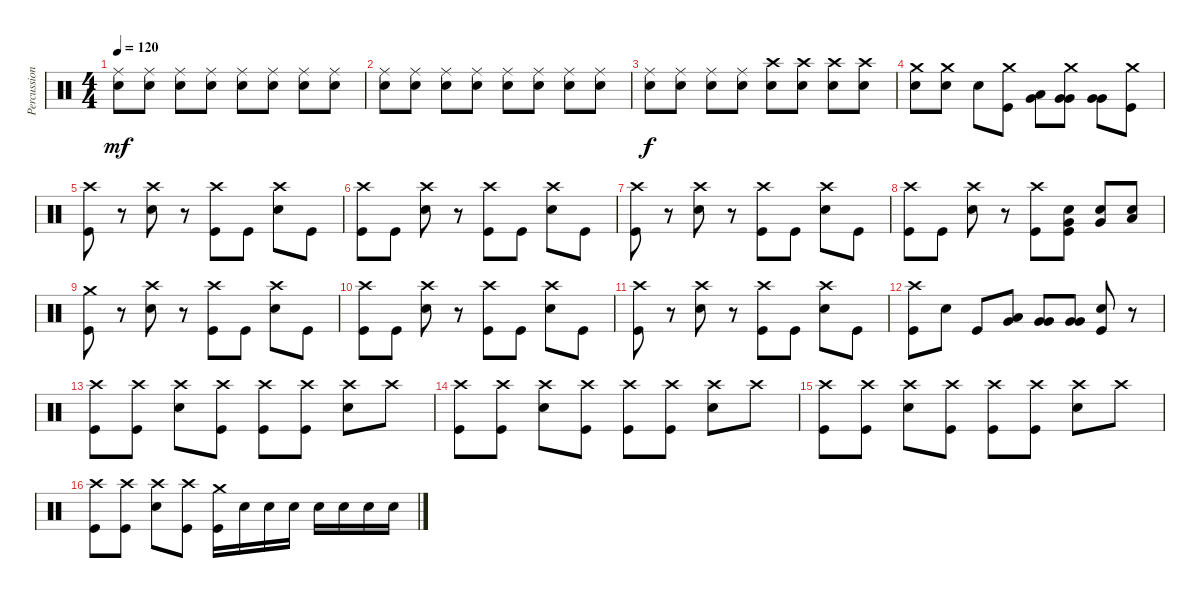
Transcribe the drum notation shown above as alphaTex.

\track ("Percussion" "Percussion") {instrument percussion}
\staff {score}
\articulation defaults
\ts (4 4)
\tempo 120
\clef neutral
\ks c
("Ride (middle)" "Snare (hit) 2").8{dy mf} ("Ride (middle)" "Snare (hit) 2").8 ("Ride (middle)" "Snare (hit) 2").8 ("Ride (middle)" "Snare (hit) 2").8 ("Ride (middle)" "Snare (hit) 2").8 ("Ride (middle)" "Snare (hit) 2").8 ("Ride (middle)" "Snare (hit) 2").8 ("Ride (middle)" "Snare (hit) 2").8 |
("Ride (middle)" "Snare (hit) 2").8 ("Ride (middle)" "Snare (hit) 2").8 ("Ride (middle)" "Snare (hit) 2").8 ("Ride (middle)" "Snare (hit) 2").8 ("Ride (middle)" "Snare (hit) 2").8 ("Ride (middle)" "Snare (hit) 2").8 ("Ride (middle)" "Snare (hit) 2").8 ("Ride (middle)" "Snare (hit) 2").8 |
("Ride (middle)" "Snare (hit) 2").8{dy f} ("Ride (middle)" "Snare (hit) 2").8 ("Ride (middle)" "Snare (hit) 2").8 ("Ride (middle)" "Snare (hit) 2").8 ("Crash high (hit)" "Snare (hit) 2").8 ("Crash high (hit)" "Snare (hit) 2").8 ("Crash high (hit)" "Snare (hit) 2").8 ("Crash high (hit)" "Snare (hit) 2").8 |
("Crash medium (hit)" "Snare (hit) 2").8 ("Crash medium (hit)" "Snare (hit) 2").8 "Snare (hit) 2".8 ("Crash medium (hit)" "Kick (hit)").8 ("Very Low Tom (hit)" "Low Floor Tom (hit)").8 ("Crash medium (hit)" "Very Low Tom (hit)" "Very Low Tom (hit)").8 ("Very Low Tom (hit)" "Very Low Tom (hit)").8 ("Crash medium (hit)" "Kick (hit)").8 |
("Crash high (hit)" "Kick (hit)").8 r.8 ("Crash high (hit)" "Snare (hit) 2").8 r.8 ("Crash high (hit)" "Kick (hit)").8 "Kick (hit)".8 ("Crash high (hit)" "Snare (hit) 2").8 "Kick (hit)".8 |
("Crash high (hit)" "Kick (hit)").8 "Kick (hit)".8 ("Crash high (hit)" "Snare (hit) 2").8 r.8 ("Crash high (hit)" "Kick (hit)").8 "Kick (hit)".8 ("Crash high (hit)" "Snare (hit) 2").8 "Kick (hit)".8 |
("Crash high (hit)" "Kick (hit)").8 r.8 ("Crash high (hit)" "Snare (hit) 2").8 r.8 ("Crash high (hit)" "Kick (hit)").8 "Kick (hit)".8 ("Crash high (hit)" "Snare (hit) 2").8 "Kick (hit)".8 |
("Crash high (hit)" "Kick (hit)").8 "Kick (hit)".8 ("Crash high (hit)" "Snare (hit) 2").8 r.8 ("Crash high (hit)" "Kick (hit)").8 ("Snare (hit) 2" "Very Low Tom (hit)" "Kick (hit)").8 ("Snare (hit) 2" "Very Low Tom (hit)").8 ("Snare (hit) 2" "Low Floor Tom (hit)").8 |
("Crash medium (hit)" "Kick (hit)").8 r.8 ("Crash high (hit)" "Snare (hit) 2").8 r.8 ("Crash high (hit)" "Kick (hit)").8 "Kick (hit)".8 ("Crash high (hit)" "Snare (hit) 2").8 "Kick (hit)".8 |
("Crash high (hit)" "Kick (hit)").8 "Kick (hit)".8 ("Crash high (hit)" "Snare (hit) 2").8 r.8 ("Crash high (hit)" "Kick (hit)").8 "Kick (hit)".8 ("Crash high (hit)" "Snare (hit) 2").8 "Kick (hit)".8 |
("Crash high (hit)" "Kick (hit)").8 r.8 ("Crash high (hit)" "Snare (hit) 2").8 r.8 ("Crash high (hit)" "Kick (hit)").8 "Kick (hit)".8 ("Crash high (hit)" "Snare (hit) 2").8 "Kick (hit)".8 |
("Crash high (hit)" "Kick (hit)").8 "Snare (hit) 2".8 "Kick (hit)".8 ("Very Low Tom (hit)" "Low Floor Tom (hit)").8 ("Very Low Tom (hit)" "Very Low Tom (hit)").8 ("Very Low Tom (hit)" "Very Low Tom (hit)").8 ("Metronome (bell)" "Kick (hit)").8 r.8 |
("Crash high (hit)" "Kick (hit)").8 ("Crash high (hit)" "Kick (hit)").8 ("Crash high (hit)" "Snare (hit) 2").8 ("Crash high (hit)" "Kick (hit)").8 ("Crash high (hit)" "Kick (hit)").8 ("Crash high (hit)" "Kick (hit)").8 ("Crash high (hit)" "Snare (hit) 2").8 "Crash high (hit)".8 |
("Crash high (hit)" "Kick (hit)").8 ("Crash high (hit)" "Kick (hit)").8 ("Crash high (hit)" "Snare (hit) 2").8 ("Crash high (hit)" "Kick (hit)").8 ("Crash high (hit)" "Kick (hit)").8 ("Crash high (hit)" "Kick (hit)").8 ("Crash high (hit)" "Snare (hit) 2").8 "Crash high (hit)".8 |
("Crash high (hit)" "Kick (hit)").8 ("Crash high (hit)" "Kick (hit)").8 ("Crash high (hit)" "Snare (hit) 2").8 ("Crash high (hit)" "Kick (hit)").8 ("Crash high (hit)" "Kick (hit)").8 ("Crash high (hit)" "Kick (hit)").8 ("Crash high (hit)" "Snare (hit) 2").8 "Crash high (hit)".8 |
("Crash high (hit)" "Kick (hit)").8 ("Crash high (hit)" "Kick (hit)").8 ("Crash high (hit)" "Snare (hit) 2").8 ("Crash high (hit)" "Kick (hit)").8 ("Crash medium (hit)" "Kick (hit)").16 "Snare (hit) 2".16 "Snare (hit) 2".16 "Snare (hit) 2".16 "Snare (hit) 2".16 "Snare (hit) 2".16 "Snare (hit) 2".16 "Snare (hit) 2".16
